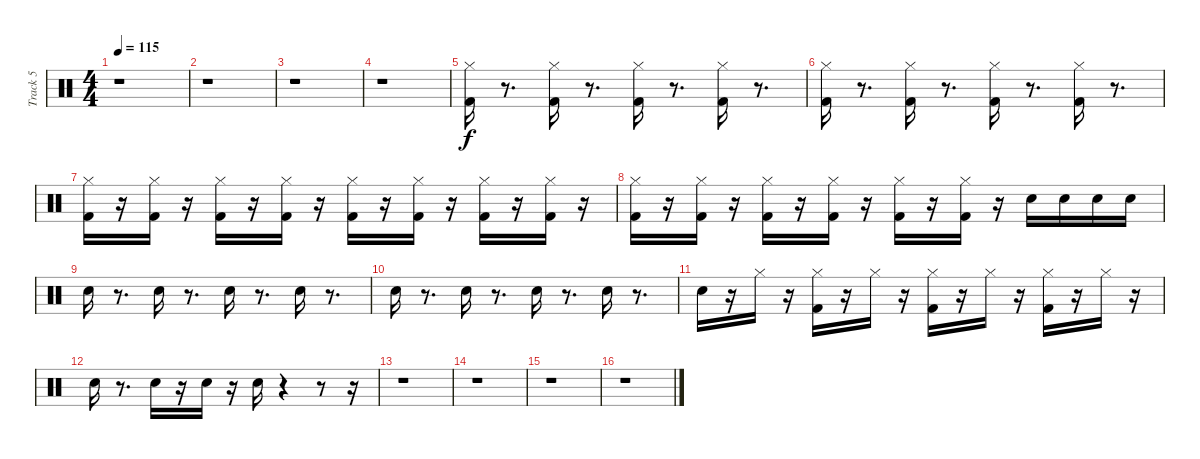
\track ("Track 5" "Track 5") {instrument percussion}
\staff {score}
\articulation defaults
\ts (4 4)
\tempo 115
\clef neutral
\ks c
r.1{dy f} |
r.1 |
r.1 |
r.1 |
("Hi-Hat (closed)" "Kick (hit) 2").16 r.8{d} ("Hi-Hat (closed)" "Kick (hit) 2").16 r.8{d} ("Hi-Hat (closed)" "Kick (hit) 2").16 r.8{d} ("Hi-Hat (closed)" "Kick (hit) 2").16 r.8{d} |
("Hi-Hat (closed)" "Kick (hit) 2").16 r.8{d} ("Hi-Hat (closed)" "Kick (hit) 2").16 r.8{d} ("Hi-Hat (closed)" "Kick (hit) 2").16 r.8{d} ("Hi-Hat (closed)" "Kick (hit) 2").16 r.8{d} |
("Hi-Hat (closed)" "Kick (hit) 2").16 r.16 ("Hi-Hat (closed)" "Kick (hit) 2").16 r.16 ("Hi-Hat (closed)" "Kick (hit) 2").16 r.16 ("Hi-Hat (closed)" "Kick (hit) 2").16 r.16 ("Hi-Hat (closed)" "Kick (hit) 2").16 r.16 ("Hi-Hat (closed)" "Kick (hit) 2").16 r.16 ("Hi-Hat (closed)" "Kick (hit) 2").16 r.16 ("Hi-Hat (closed)" "Kick (hit) 2").16 r.16 |
("Hi-Hat (closed)" "Kick (hit) 2").16 r.16 ("Hi-Hat (closed)" "Kick (hit) 2").16 r.16 ("Hi-Hat (closed)" "Kick (hit) 2").16 r.16 ("Hi-Hat (closed)" "Kick (hit) 2").16 r.16 ("Hi-Hat (closed)" "Kick (hit) 2").16 r.16 ("Hi-Hat (closed)" "Kick (hit) 2").16 r.16 "Snare (hit) 2".16 "Snare (hit) 2".16 "Snare (hit) 2".16 "Snare (hit) 2".16 |
"Snare (hit) 2".16 r.8{d} "Snare (hit) 2".16 r.8{d} "Snare (hit) 2".16 r.8{d} "Snare (hit) 2".16 r.8{d} |
"Snare (hit) 2".16 r.8{d} "Snare (hit) 2".16 r.8{d} "Snare (hit) 2".16 r.8{d} "Snare (hit) 2".16 r.8{d} |
"Snare (hit) 2".16 r.16 "Hi-Hat (closed)".16 r.16 ("Hi-Hat (closed)" "Kick (hit) 2").16 r.16 "Hi-Hat (closed)".16 r.16 ("Hi-Hat (closed)" "Kick (hit) 2").16 r.16 "Hi-Hat (closed)".16 r.16 ("Hi-Hat (closed)" "Kick (hit) 2").16 r.16 "Hi-Hat (closed)".16 r.16 |
"Snare (hit) 2".16 r.8{d} "Snare (hit) 2".16 r.16 "Snare (hit) 2".16 r.16 "Snare (hit) 2".16 r.4 r.8 r.16 |
r.1 |
r.1 |
r.1 |
r.1
